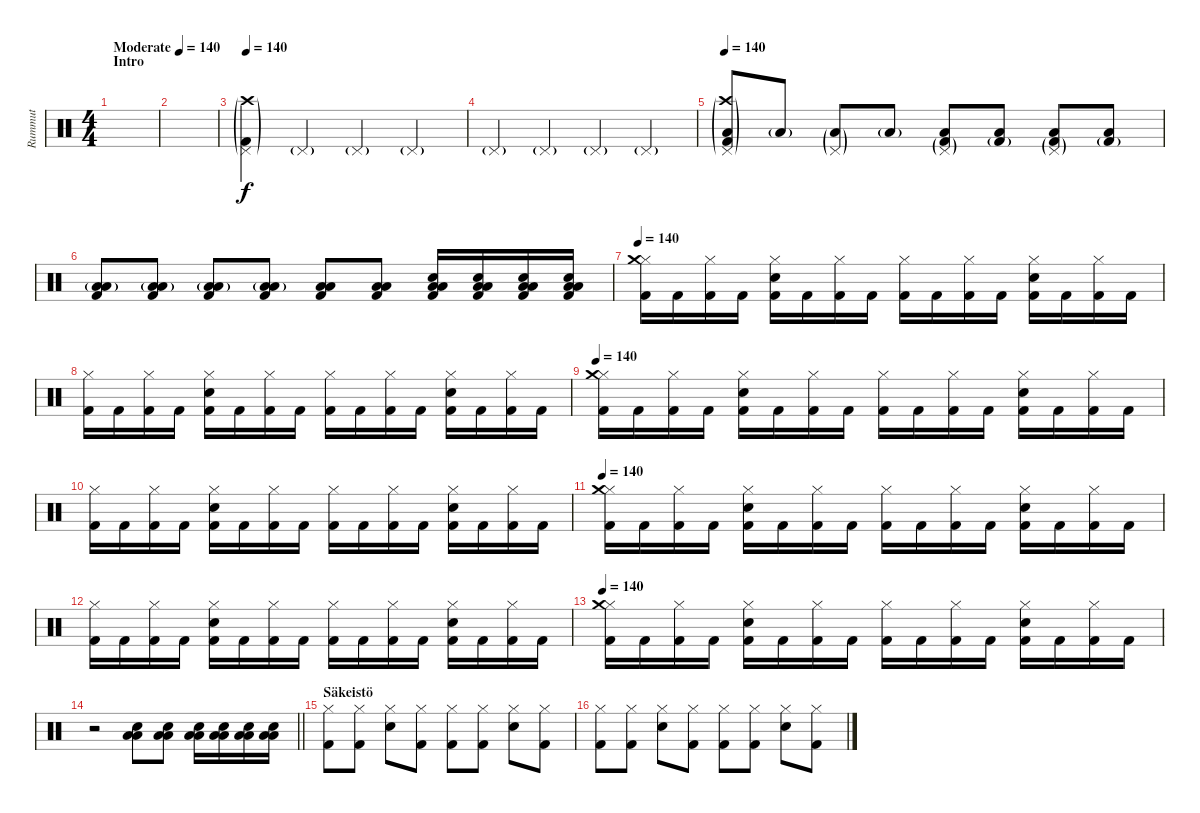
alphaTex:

\track ("Rummut" "Rummut") {instrument percussion}
\staff {score}
\articulation defaults
\ts (4 4)
\section ("" "Intro")
\tempo (140 "Moderate")
\clef neutral
\ks c
|
|
\tempo 140
("Pedal Hi-Hat (hit)"{g} "Kick (hit) 2"{g} "Crash high (hit)"{g}).4 "Pedal Hi-Hat (hit)"{g}.4 "Pedal Hi-Hat (hit)"{g}.4 "Pedal Hi-Hat (hit)"{g}.4 |
"Pedal Hi-Hat (hit)"{g}.4 "Pedal Hi-Hat (hit)"{g}.4 "Pedal Hi-Hat (hit)"{g}.4 "Pedal Hi-Hat (hit)"{g}.4 |
\tempo 140
("Low Floor Tom (hit)"{g} "Pedal Hi-Hat (hit)"{g} "Kick (hit) 2"{g} "Crash high (hit)"{g}).8 "Low Floor Tom (hit)"{g}.8 ("Low Floor Tom (hit)"{g} "Pedal Hi-Hat (hit)"{g}).8 "Low Floor Tom (hit)"{g}.8 ("Kick (hit) 2"{g} "Low Floor Tom (hit)" "Pedal Hi-Hat (hit)"{g}).8 ("Kick (hit) 2"{g} "Low Floor Tom (hit)").8 ("Kick (hit) 2"{g} "Low Floor Tom (hit)" "Pedal Hi-Hat (hit)"{g}).8 ("Kick (hit) 2"{g} "Low Floor Tom (hit)").8 |
("Kick (hit) 2" "Low Floor Tom (hit)" "Low Tom (hit)"{g}).8 ("Kick (hit) 2" "Low Floor Tom (hit)" "Low Tom (hit)"{g}).8 ("Kick (hit) 2" "Low Floor Tom (hit)" "Low Tom (hit)"{g}).8 ("Kick (hit) 2" "Low Floor Tom (hit)" "Low Tom (hit)"{g}).8 ("Kick (hit) 2" "Low Floor Tom (hit)" "Low Tom (hit)").8{dy f} ("Kick (hit) 2" "Low Floor Tom (hit)" "Low Tom (hit)").8 ("Kick (hit) 2" "Low Floor Tom (hit)" "Low Tom (hit)" "Snare (hit) 2").16 ("Kick (hit) 2" "Low Floor Tom (hit)" "Low Tom (hit)" "Snare (hit) 2").16 ("Kick (hit) 2" "Low Floor Tom (hit)" "Low Tom (hit)" "Snare (hit) 2").16 ("Kick (hit) 2" "Low Floor Tom (hit)" "Low Tom (hit)" "Snare (hit) 2").16 |
\tempo 140
("Kick (hit) 2" "Hi-Hat (closed)" "Crash medium (hit)").16 "Kick (hit) 2".16 ("Kick (hit) 2" "Hi-Hat (closed)").16 "Kick (hit) 2".16 ("Kick (hit) 2" "Snare (hit) 2" "Hi-Hat (closed)").16 "Kick (hit) 2".16 ("Kick (hit) 2" "Hi-Hat (closed)").16 "Kick (hit) 2".16 ("Kick (hit) 2" "Hi-Hat (closed)").16 "Kick (hit) 2".16 ("Kick (hit) 2" "Hi-Hat (closed)").16 "Kick (hit) 2".16 ("Kick (hit) 2" "Snare (hit) 2" "Hi-Hat (closed)").16 "Kick (hit) 2".16 ("Kick (hit) 2" "Hi-Hat (closed)").16 "Kick (hit) 2".16 |
("Kick (hit) 2" "Hi-Hat (closed)").16 "Kick (hit) 2".16 ("Kick (hit) 2" "Hi-Hat (closed)").16 "Kick (hit) 2".16 ("Kick (hit) 2" "Snare (hit) 2" "Hi-Hat (closed)").16 "Kick (hit) 2".16 ("Kick (hit) 2" "Hi-Hat (closed)").16 "Kick (hit) 2".16 ("Kick (hit) 2" "Hi-Hat (closed)").16 "Kick (hit) 2".16 ("Kick (hit) 2" "Hi-Hat (closed)").16 "Kick (hit) 2".16 ("Kick (hit) 2" "Snare (hit) 2" "Hi-Hat (closed)").16 "Kick (hit) 2".16 ("Kick (hit) 2" "Hi-Hat (closed)").16 "Kick (hit) 2".16 |
\tempo 140
("Kick (hit) 2" "Hi-Hat (closed)" "Crash medium (hit)").16 "Kick (hit) 2".16 ("Kick (hit) 2" "Hi-Hat (closed)").16 "Kick (hit) 2".16 ("Kick (hit) 2" "Snare (hit) 2" "Hi-Hat (closed)").16 "Kick (hit) 2".16 ("Kick (hit) 2" "Hi-Hat (closed)").16 "Kick (hit) 2".16 ("Kick (hit) 2" "Hi-Hat (closed)").16 "Kick (hit) 2".16 ("Kick (hit) 2" "Hi-Hat (closed)").16 "Kick (hit) 2".16 ("Kick (hit) 2" "Snare (hit) 2" "Hi-Hat (closed)").16 "Kick (hit) 2".16 ("Kick (hit) 2" "Hi-Hat (closed)").16 "Kick (hit) 2".16 |
("Kick (hit) 2" "Hi-Hat (closed)").16 "Kick (hit) 2".16 ("Kick (hit) 2" "Hi-Hat (closed)").16 "Kick (hit) 2".16 ("Kick (hit) 2" "Snare (hit) 2" "Hi-Hat (closed)").16 "Kick (hit) 2".16 ("Kick (hit) 2" "Hi-Hat (closed)").16 "Kick (hit) 2".16 ("Kick (hit) 2" "Hi-Hat (closed)").16 "Kick (hit) 2".16 ("Kick (hit) 2" "Hi-Hat (closed)").16 "Kick (hit) 2".16 ("Kick (hit) 2" "Snare (hit) 2" "Hi-Hat (closed)").16 "Kick (hit) 2".16 ("Kick (hit) 2" "Hi-Hat (closed)").16 "Kick (hit) 2".16 |
\tempo 140
("Kick (hit) 2" "Hi-Hat (closed)" "Crash medium (hit)").16 "Kick (hit) 2".16 ("Kick (hit) 2" "Hi-Hat (closed)").16 "Kick (hit) 2".16 ("Kick (hit) 2" "Snare (hit) 2" "Hi-Hat (closed)").16 "Kick (hit) 2".16 ("Kick (hit) 2" "Hi-Hat (closed)").16 "Kick (hit) 2".16 ("Kick (hit) 2" "Hi-Hat (closed)").16 "Kick (hit) 2".16 ("Kick (hit) 2" "Hi-Hat (closed)").16 "Kick (hit) 2".16 ("Kick (hit) 2" "Snare (hit) 2" "Hi-Hat (closed)").16 "Kick (hit) 2".16 ("Kick (hit) 2" "Hi-Hat (closed)").16 "Kick (hit) 2".16 |
("Kick (hit) 2" "Hi-Hat (closed)").16 "Kick (hit) 2".16 ("Kick (hit) 2" "Hi-Hat (closed)").16 "Kick (hit) 2".16 ("Kick (hit) 2" "Snare (hit) 2" "Hi-Hat (closed)").16 "Kick (hit) 2".16 ("Kick (hit) 2" "Hi-Hat (closed)").16 "Kick (hit) 2".16 ("Kick (hit) 2" "Hi-Hat (closed)").16 "Kick (hit) 2".16 ("Kick (hit) 2" "Hi-Hat (closed)").16 "Kick (hit) 2".16 ("Kick (hit) 2" "Snare (hit) 2" "Hi-Hat (closed)").16 "Kick (hit) 2".16 ("Kick (hit) 2" "Hi-Hat (closed)").16 "Kick (hit) 2".16 |
\tempo 140
("Kick (hit) 2" "Hi-Hat (closed)" "Crash medium (hit)").16 "Kick (hit) 2".16 ("Kick (hit) 2" "Hi-Hat (closed)").16 "Kick (hit) 2".16 ("Kick (hit) 2" "Snare (hit) 2" "Hi-Hat (closed)").16 "Kick (hit) 2".16 ("Kick (hit) 2" "Hi-Hat (closed)").16 "Kick (hit) 2".16 ("Kick (hit) 2" "Hi-Hat (closed)").16 "Kick (hit) 2".16 ("Kick (hit) 2" "Hi-Hat (closed)").16 "Kick (hit) 2".16 ("Kick (hit) 2" "Snare (hit) 2" "Hi-Hat (closed)").16 "Kick (hit) 2".16 ("Kick (hit) 2" "Hi-Hat (closed)").16 "Kick (hit) 2".16 |
\barLineRight lightlight
r.2 ("Low Tom (hit)" "Low Floor Tom (hit)" "Snare (hit) 2").8 ("Low Tom (hit)" "Low Floor Tom (hit)" "Snare (hit) 2").8 ("Low Tom (hit)" "Low Floor Tom (hit)" "Snare (hit) 2").16 ("Low Tom (hit)" "Low Floor Tom (hit)" "Snare (hit) 2").16 ("Low Tom (hit)" "Low Floor Tom (hit)" "Snare (hit) 2").16 ("Low Tom (hit)" "Low Floor Tom (hit)" "Snare (hit) 2").16 |
\section ("" "Säkeistö")
("Kick (hit) 2" "Hi-Hat (closed)").8 ("Kick (hit) 2" "Hi-Hat (closed)").8 ("Snare (hit) 2" "Hi-Hat (closed)").8 ("Kick (hit) 2" "Hi-Hat (closed)").8 ("Kick (hit) 2" "Hi-Hat (closed)").8 ("Kick (hit) 2" "Hi-Hat (closed)").8 ("Snare (hit) 2" "Hi-Hat (closed)").8 ("Kick (hit) 2" "Hi-Hat (closed)").8 |
("Kick (hit) 2" "Hi-Hat (closed)").8 ("Kick (hit) 2" "Hi-Hat (closed)").8 ("Snare (hit) 2" "Hi-Hat (closed)").8 ("Kick (hit) 2" "Hi-Hat (closed)").8 ("Kick (hit) 2" "Hi-Hat (closed)").8 ("Kick (hit) 2" "Hi-Hat (closed)").8 ("Snare (hit) 2" "Hi-Hat (closed)").8 ("Kick (hit) 2" "Hi-Hat (closed)").8
